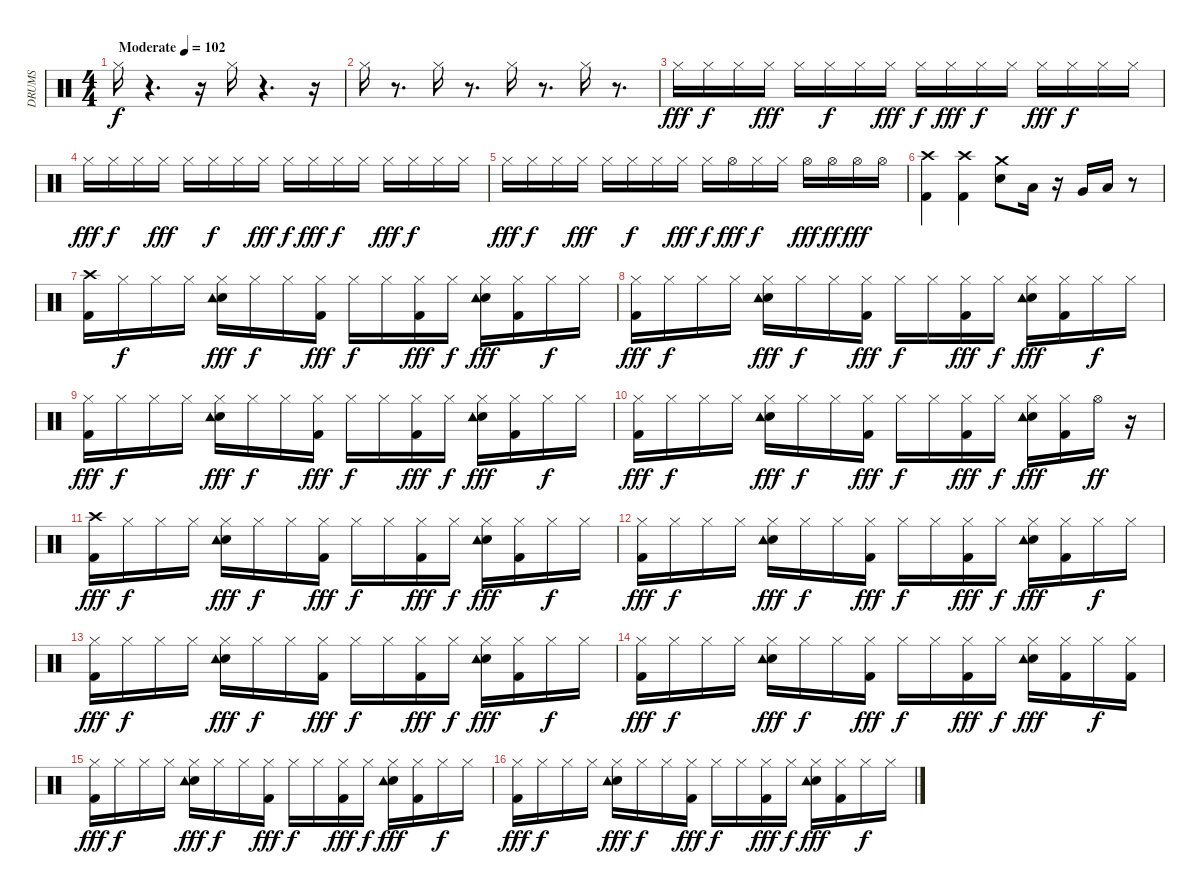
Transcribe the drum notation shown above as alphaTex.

\track ("DRUMS" "DRUMS") {instrument percussion}
\staff {score}
\articulation defaults
\ts (4 4)
\tempo (102 "Moderate")
\clef neutral
\ks c "Hi-Hat (closed)".16{dy f}
r.4{d} r.16 "Hi-Hat (closed)".16 r.4{d} r.16 |
"Hi-Hat (closed)".16 r.8{d} "Hi-Hat (closed)".16 r.8{d} "Hi-Hat (closed)".16 r.8{d} "Hi-Hat (closed)".16 r.8{d} |
"Hi-Hat (closed)".16{dy fff} "Hi-Hat (closed)".16{dy f} "Hi-Hat (closed)".16 "Hi-Hat (closed)".16{dy fff} "Hi-Hat (closed)".16 "Hi-Hat (closed)".16{dy f} "Hi-Hat (closed)".16 "Hi-Hat (closed)".16{dy fff} "Hi-Hat (closed)".16{dy f} "Hi-Hat (closed)".16{dy fff} "Hi-Hat (closed)".16{dy f} "Hi-Hat (closed)".16 "Hi-Hat (closed)".16{dy fff} "Hi-Hat (closed)".16{dy f} "Hi-Hat (closed)".16 "Hi-Hat (closed)".16 |
"Hi-Hat (closed)".16{dy fff} "Hi-Hat (closed)".16{dy f} "Hi-Hat (closed)".16 "Hi-Hat (closed)".16{dy fff} "Hi-Hat (closed)".16 "Hi-Hat (closed)".16{dy f} "Hi-Hat (closed)".16 "Hi-Hat (closed)".16{dy fff} "Hi-Hat (closed)".16{dy f} "Hi-Hat (closed)".16{dy fff} "Hi-Hat (closed)".16{dy f} "Hi-Hat (closed)".16 "Hi-Hat (closed)".16{dy fff} "Hi-Hat (closed)".16{dy f} "Hi-Hat (closed)".16 "Hi-Hat (closed)".16 |
"Hi-Hat (closed)".16{dy fff} "Hi-Hat (closed)".16{dy f} "Hi-Hat (closed)".16 "Hi-Hat (closed)".16{dy fff} "Hi-Hat (closed)".16 "Hi-Hat (closed)".16{dy f} "Hi-Hat (closed)".16 "Hi-Hat (closed)".16{dy fff} "Hi-Hat (closed)".16{dy f} "Hi-Hat (open)".16{dy fff} "Hi-Hat (closed)".16{dy f} "Hi-Hat (closed)".16 "Hi-Hat (open)".16{dy fff} "Hi-Hat (open)".16{dy ff} "Hi-Hat (open)".16{dy fff} "Hi-Hat (open)".16 |
("Crash high (hit)" "Kick (hit) 2").4 ("Crash high (hit)" "Kick (hit) 2").4{volume 16} ("Crash medium (hit)" "Snare (hit) 2").8 "Low Tom (hit)".16 r.16 "Very Low Tom (hit)".16 "Low Floor Tom (hit)".16 r.8 |
("Crash high (hit)" "Kick (hit) 2").16 "Hi-Hat (closed)".16{dy f} "Hi-Hat (closed)".16 "Hi-Hat (closed)".16 ("Hi-Hat (closed)" "Snare (hit) 2" "Tambourine (hit)").16{dy fff} "Hi-Hat (closed)".16{dy f} "Hi-Hat (closed)".16 ("Hi-Hat (closed)" "Kick (hit) 2").16{dy fff} "Hi-Hat (closed)".16{dy f} "Hi-Hat (closed)".16 ("Hi-Hat (closed)" "Kick (hit) 2").16{dy fff} "Hi-Hat (closed)".16{dy f} ("Hi-Hat (closed)" "Snare (hit) 2" "Tambourine (hit)").16{dy fff} ("Hi-Hat (closed)" "Kick (hit) 2").16 "Hi-Hat (closed)".16{dy f} "Hi-Hat (closed)".16 |
("Hi-Hat (closed)" "Kick (hit) 2").16{dy fff} "Hi-Hat (closed)".16{dy f} "Hi-Hat (closed)".16 "Hi-Hat (closed)".16 ("Hi-Hat (closed)" "Snare (hit) 2" "Tambourine (hit)").16{dy fff} "Hi-Hat (closed)".16{dy f} "Hi-Hat (closed)".16 ("Hi-Hat (closed)" "Kick (hit) 2").16{dy fff} "Hi-Hat (closed)".16{dy f} "Hi-Hat (closed)".16 ("Hi-Hat (closed)" "Kick (hit) 2").16{dy fff} "Hi-Hat (closed)".16{dy f} ("Hi-Hat (closed)" "Snare (hit) 2" "Tambourine (hit)").16{dy fff} ("Hi-Hat (closed)" "Kick (hit) 2").16 "Hi-Hat (closed)".16{dy f} "Hi-Hat (closed)".16 |
("Hi-Hat (closed)" "Kick (hit) 2").16{dy fff} "Hi-Hat (closed)".16{dy f} "Hi-Hat (closed)".16 "Hi-Hat (closed)".16 ("Hi-Hat (closed)" "Snare (hit) 2" "Tambourine (hit)").16{dy fff} "Hi-Hat (closed)".16{dy f} "Hi-Hat (closed)".16 ("Hi-Hat (closed)" "Kick (hit) 2").16{dy fff} "Hi-Hat (closed)".16{dy f} "Hi-Hat (closed)".16 ("Hi-Hat (closed)" "Kick (hit) 2").16{dy fff} "Hi-Hat (closed)".16{dy f} ("Hi-Hat (closed)" "Snare (hit) 2" "Tambourine (hit)").16{dy fff} ("Hi-Hat (closed)" "Kick (hit) 2").16 "Hi-Hat (closed)".16{dy f} "Hi-Hat (closed)".16 |
("Hi-Hat (closed)" "Kick (hit) 2").16{dy fff} "Hi-Hat (closed)".16{dy f} "Hi-Hat (closed)".16 "Hi-Hat (closed)".16 ("Hi-Hat (closed)" "Snare (hit) 2" "Tambourine (hit)").16{dy fff} "Hi-Hat (closed)".16{dy f} "Hi-Hat (closed)".16 ("Hi-Hat (closed)" "Kick (hit) 2").16{dy fff} "Hi-Hat (closed)".16{dy f} "Hi-Hat (closed)".16 ("Hi-Hat (closed)" "Kick (hit) 2").16{dy fff} "Hi-Hat (closed)".16{dy f} ("Hi-Hat (closed)" "Snare (hit) 2" "Tambourine (hit)").16{dy fff} ("Hi-Hat (closed)" "Kick (hit) 2").16 "Hi-Hat (open)".16{dy ff} r.16 |
("Crash high (hit)" "Kick (hit) 2").16{dy fff} "Hi-Hat (closed)".16{dy f} "Hi-Hat (closed)".16 "Hi-Hat (closed)".16 ("Hi-Hat (closed)" "Snare (hit) 2" "Tambourine (hit)").16{dy fff} "Hi-Hat (closed)".16{dy f} "Hi-Hat (closed)".16 ("Hi-Hat (closed)" "Kick (hit) 2").16{dy fff} "Hi-Hat (closed)".16{dy f} "Hi-Hat (closed)".16 ("Hi-Hat (closed)" "Kick (hit) 2").16{dy fff} "Hi-Hat (closed)".16{dy f} ("Hi-Hat (closed)" "Snare (hit) 2" "Tambourine (hit)").16{dy fff} ("Hi-Hat (closed)" "Kick (hit) 2").16 "Hi-Hat (closed)".16{dy f} "Hi-Hat (closed)".16 |
("Hi-Hat (closed)" "Kick (hit) 2").16{dy fff} "Hi-Hat (closed)".16{dy f} "Hi-Hat (closed)".16 "Hi-Hat (closed)".16 ("Hi-Hat (closed)" "Snare (hit) 2" "Tambourine (hit)").16{dy fff} "Hi-Hat (closed)".16{dy f} "Hi-Hat (closed)".16 ("Hi-Hat (closed)" "Kick (hit) 2").16{dy fff} "Hi-Hat (closed)".16{dy f} "Hi-Hat (closed)".16 ("Hi-Hat (closed)" "Kick (hit) 2").16{dy fff} "Hi-Hat (closed)".16{dy f} ("Hi-Hat (closed)" "Snare (hit) 2" "Tambourine (hit)").16{dy fff} ("Hi-Hat (closed)" "Kick (hit) 2").16 "Hi-Hat (closed)".16{dy f} "Hi-Hat (closed)".16 |
("Hi-Hat (closed)" "Kick (hit) 2").16{dy fff} "Hi-Hat (closed)".16{dy f} "Hi-Hat (closed)".16 "Hi-Hat (closed)".16 ("Hi-Hat (closed)" "Snare (hit) 2" "Tambourine (hit)").16{dy fff} "Hi-Hat (closed)".16{dy f} "Hi-Hat (closed)".16 ("Hi-Hat (closed)" "Kick (hit) 2").16{dy fff} "Hi-Hat (closed)".16{dy f} "Hi-Hat (closed)".16 ("Hi-Hat (closed)" "Kick (hit) 2").16{dy fff} "Hi-Hat (closed)".16{dy f} ("Hi-Hat (closed)" "Snare (hit) 2" "Tambourine (hit)").16{dy fff} ("Hi-Hat (closed)" "Kick (hit) 2").16 "Hi-Hat (closed)".16{dy f} "Hi-Hat (closed)".16 |
("Hi-Hat (closed)" "Kick (hit) 2").16{dy fff} "Hi-Hat (closed)".16{dy f} "Hi-Hat (closed)".16 "Hi-Hat (closed)".16 ("Hi-Hat (closed)" "Snare (hit) 2" "Tambourine (hit)").16{dy fff} "Hi-Hat (closed)".16{dy f} "Hi-Hat (closed)".16 ("Hi-Hat (closed)" "Kick (hit) 2").16{dy fff} "Hi-Hat (closed)".16{dy f} "Hi-Hat (closed)".16 ("Hi-Hat (closed)" "Kick (hit) 2").16{dy fff} "Hi-Hat (closed)".16{dy f} ("Hi-Hat (closed)" "Snare (hit) 2" "Tambourine (hit)").16{dy fff} ("Hi-Hat (closed)" "Kick (hit) 2").16 "Hi-Hat (closed)".16{dy f} ("Hi-Hat (closed)" "Kick (hit) 2").16 |
("Hi-Hat (closed)" "Kick (hit) 2").16{dy fff} "Hi-Hat (closed)".16{dy f} "Hi-Hat (closed)".16 "Hi-Hat (closed)".16 ("Hi-Hat (closed)" "Snare (hit) 2" "Tambourine (hit)").16{dy fff} "Hi-Hat (closed)".16{dy f} "Hi-Hat (closed)".16 ("Hi-Hat (closed)" "Kick (hit) 2").16{dy fff} "Hi-Hat (closed)".16{dy f} "Hi-Hat (closed)".16 ("Hi-Hat (closed)" "Kick (hit) 2").16{dy fff} "Hi-Hat (closed)".16{dy f} ("Hi-Hat (closed)" "Snare (hit) 2" "Tambourine (hit)").16{dy fff} ("Hi-Hat (closed)" "Kick (hit) 2").16 "Hi-Hat (closed)".16{dy f} "Hi-Hat (closed)".16 |
("Hi-Hat (closed)" "Kick (hit) 2").16{dy fff} "Hi-Hat (closed)".16{dy f} "Hi-Hat (closed)".16 "Hi-Hat (closed)".16 ("Hi-Hat (closed)" "Snare (hit) 2" "Tambourine (hit)").16{dy fff} "Hi-Hat (closed)".16{dy f} "Hi-Hat (closed)".16 ("Hi-Hat (closed)" "Kick (hit) 2").16{dy fff} "Hi-Hat (closed)".16{dy f} "Hi-Hat (closed)".16 ("Hi-Hat (closed)" "Kick (hit) 2").16{dy fff} "Hi-Hat (closed)".16{dy f} ("Hi-Hat (closed)" "Snare (hit) 2" "Tambourine (hit)").16{dy fff} ("Hi-Hat (closed)" "Kick (hit) 2").16 "Hi-Hat (closed)".16{dy f} "Hi-Hat (closed)".16
